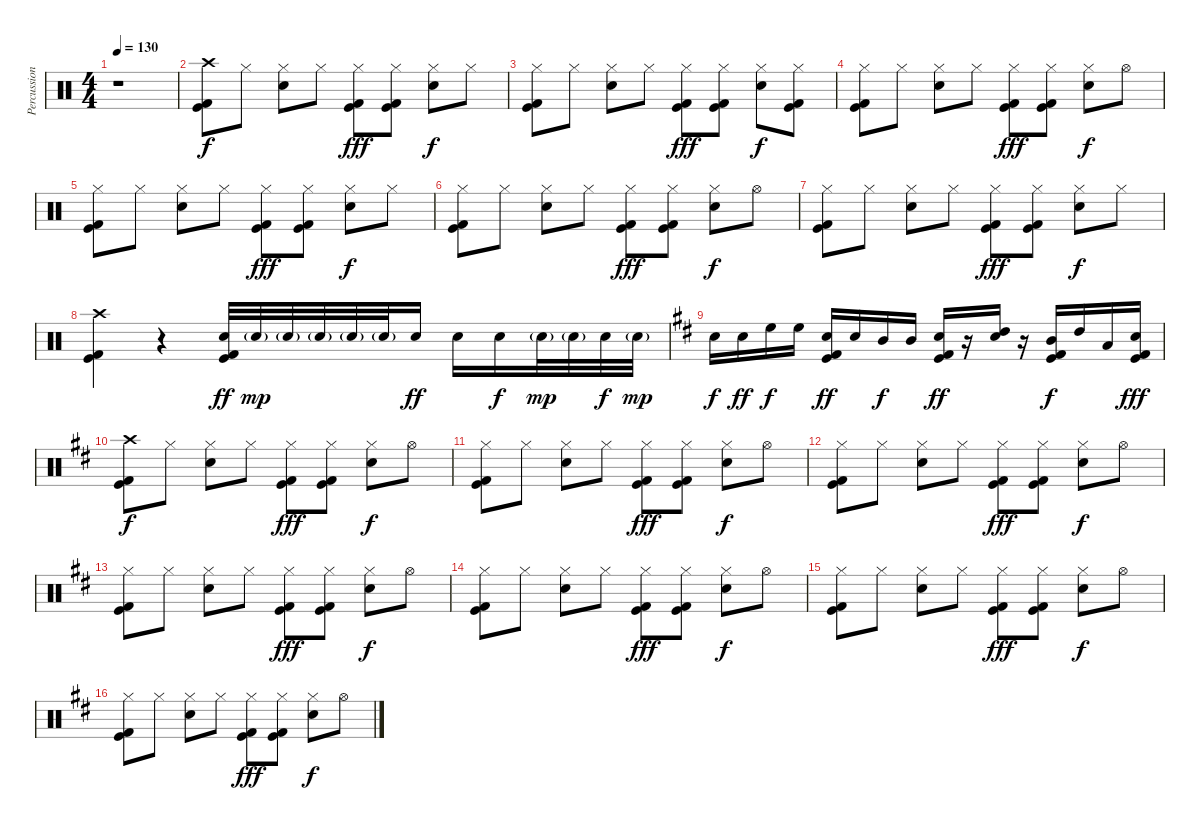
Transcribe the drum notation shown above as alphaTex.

\track ("Percussion" "Percussion") {instrument percussion}
\staff {score}
\articulation defaults
\ts (4 4)
\tempo 130
\clef neutral
\ks c
r.1{dy f} |
("Crash high (hit)" "Kick (hit)" "Kick (hit) 2").8 "Hi-Hat (closed)".8 ("Hi-Hat (closed)" "Electric Snare (hit)").8 "Hi-Hat (closed)".8 ("Hi-Hat (closed)" "Kick (hit)" "Kick (hit) 2").8{dy fff} ("Hi-Hat (closed)" "Kick (hit)" "Kick (hit) 2").8 ("Hi-Hat (closed)" "Electric Snare (hit)").8{dy f} "Hi-Hat (closed)".8 |
("Hi-Hat (closed)" "Kick (hit)" "Kick (hit) 2").8 "Hi-Hat (closed)".8 ("Hi-Hat (closed)" "Electric Snare (hit)").8 "Hi-Hat (closed)".8 ("Hi-Hat (closed)" "Kick (hit)" "Kick (hit) 2").8{dy fff} ("Hi-Hat (closed)" "Kick (hit)" "Kick (hit) 2").8 ("Hi-Hat (closed)" "Electric Snare (hit)").8{dy f} ("Hi-Hat (closed)" "Kick (hit)" "Kick (hit) 2").8 |
("Hi-Hat (closed)" "Kick (hit)" "Kick (hit) 2").8 "Hi-Hat (closed)".8 ("Hi-Hat (closed)" "Electric Snare (hit)").8 "Hi-Hat (closed)".8 ("Hi-Hat (closed)" "Kick (hit)" "Kick (hit) 2").8{dy fff} ("Hi-Hat (closed)" "Kick (hit)" "Kick (hit) 2").8 ("Hi-Hat (closed)" "Electric Snare (hit)").8{dy f} "Hi-Hat (open)".8 |
("Hi-Hat (closed)" "Kick (hit)" "Kick (hit) 2").8 "Hi-Hat (closed)".8 ("Hi-Hat (closed)" "Electric Snare (hit)").8 "Hi-Hat (closed)".8 ("Hi-Hat (closed)" "Kick (hit)" "Kick (hit) 2").8{dy fff} ("Hi-Hat (closed)" "Kick (hit)" "Kick (hit) 2").8 ("Hi-Hat (closed)" "Electric Snare (hit)").8{dy f} "Hi-Hat (closed)".8 |
("Hi-Hat (closed)" "Kick (hit)" "Kick (hit) 2").8 "Hi-Hat (closed)".8 ("Hi-Hat (closed)" "Electric Snare (hit)").8 "Hi-Hat (closed)".8 ("Hi-Hat (closed)" "Kick (hit)" "Kick (hit) 2").8{dy fff} ("Hi-Hat (closed)" "Kick (hit)" "Kick (hit) 2").8 ("Hi-Hat (closed)" "Electric Snare (hit)").8{dy f} "Hi-Hat (open)".8 |
("Hi-Hat (closed)" "Kick (hit)" "Kick (hit) 2").8 "Hi-Hat (closed)".8 ("Hi-Hat (closed)" "Electric Snare (hit)").8 "Hi-Hat (closed)".8 ("Hi-Hat (closed)" "Kick (hit)" "Kick (hit) 2").8{dy fff} ("Hi-Hat (closed)" "Kick (hit)" "Kick (hit) 2").8 ("Hi-Hat (closed)" "Electric Snare (hit)").8{dy f} "Hi-Hat (closed)".8 |
("Crash high (hit)" "Kick (hit)" "Kick (hit) 2").4 r.4 ("Kick (hit)" "Electric Snare (hit)" "Kick (hit) 2").32{dy ff} "Electric Snare (hit)"{g}.32{dy mp} "Electric Snare (hit)"{g}.32 "Electric Snare (hit)"{g}.32 "Electric Snare (hit)"{g}.32 "Electric Snare (hit)"{g}.32 "Electric Snare (hit)".16{dy ff} "Electric Snare (hit)".16 "Electric Snare (hit)".16{dy f} "Electric Snare (hit)"{g}.32{dy mp} "Electric Snare (hit)"{g}.32 "Electric Snare (hit)".32{dy f} "Electric Snare (hit)"{g}.32{dy mp} |
\ks d "Electric Snare (hit)".16{dy f} "Electric Snare (hit)".16{dy ff} "High Floor Tom (hit)".16{dy f} "High Floor Tom (hit)".16
("Kick (hit)" "Electric Snare (hit)" "Kick (hit) 2").16{dy ff} "Electric Snare (hit)".16 "Mid Tom (hit)".16{dy f} "Mid Tom (hit)".16 ("Kick (hit)" "Electric Snare (hit)" "Kick (hit) 2").16{dy ff} r.16 ("High Tom (hit)" "Electric Snare (hit)").16 r.16 ("Mid Tom (hit)" "Kick (hit)" "Kick (hit) 2").16{dy f} "High Tom (hit)".16 "Low Floor Tom (hit)".16 ("Kick (hit)" "Electric Snare (hit)" "Kick (hit) 2").16{dy fff} |
("Crash high (hit)" "Kick (hit)" "Kick (hit) 2").8{dy f} "Hi-Hat (closed)".8 ("Hi-Hat (closed)" "Electric Snare (hit)").8 "Hi-Hat (closed)".8 ("Hi-Hat (closed)" "Kick (hit)" "Kick (hit) 2").8{dy fff} ("Hi-Hat (closed)" "Kick (hit)" "Kick (hit) 2").8 ("Hi-Hat (closed)" "Electric Snare (hit)").8{dy f} "Hi-Hat (open)".8 |
("Hi-Hat (closed)" "Kick (hit)" "Kick (hit) 2").8 "Hi-Hat (closed)".8 ("Hi-Hat (closed)" "Electric Snare (hit)").8 "Hi-Hat (closed)".8 ("Hi-Hat (closed)" "Kick (hit)" "Kick (hit) 2").8{dy fff} ("Hi-Hat (closed)" "Kick (hit)" "Kick (hit) 2").8 ("Hi-Hat (closed)" "Electric Snare (hit)").8{dy f} "Hi-Hat (open)".8 |
("Hi-Hat (closed)" "Kick (hit)" "Kick (hit) 2").8 "Hi-Hat (closed)".8 ("Hi-Hat (closed)" "Electric Snare (hit)").8 "Hi-Hat (closed)".8 ("Hi-Hat (closed)" "Kick (hit)" "Kick (hit) 2").8{dy fff} ("Hi-Hat (closed)" "Kick (hit)" "Kick (hit) 2").8 ("Hi-Hat (closed)" "Electric Snare (hit)").8{dy f} "Hi-Hat (open)".8 |
("Hi-Hat (closed)" "Kick (hit)" "Kick (hit) 2").8 "Hi-Hat (closed)".8 ("Hi-Hat (closed)" "Electric Snare (hit)").8 "Hi-Hat (closed)".8 ("Hi-Hat (closed)" "Kick (hit)" "Kick (hit) 2").8{dy fff} ("Hi-Hat (closed)" "Kick (hit)" "Kick (hit) 2").8 ("Hi-Hat (closed)" "Electric Snare (hit)").8{dy f} "Hi-Hat (open)".8 |
("Hi-Hat (closed)" "Kick (hit)" "Kick (hit) 2").8 "Hi-Hat (closed)".8 ("Hi-Hat (closed)" "Electric Snare (hit)").8 "Hi-Hat (closed)".8 ("Hi-Hat (closed)" "Kick (hit)" "Kick (hit) 2").8{dy fff} ("Hi-Hat (closed)" "Kick (hit)" "Kick (hit) 2").8 ("Hi-Hat (closed)" "Electric Snare (hit)").8{dy f} "Hi-Hat (open)".8 |
("Hi-Hat (closed)" "Kick (hit)" "Kick (hit) 2").8 "Hi-Hat (closed)".8 ("Hi-Hat (closed)" "Electric Snare (hit)").8 "Hi-Hat (closed)".8 ("Hi-Hat (closed)" "Kick (hit)" "Kick (hit) 2").8{dy fff} ("Hi-Hat (closed)" "Kick (hit)" "Kick (hit) 2").8 ("Hi-Hat (closed)" "Electric Snare (hit)").8{dy f} "Hi-Hat (open)".8 |
("Hi-Hat (closed)" "Kick (hit)" "Kick (hit) 2").8 "Hi-Hat (closed)".8 ("Hi-Hat (closed)" "Electric Snare (hit)").8 "Hi-Hat (closed)".8 ("Hi-Hat (closed)" "Kick (hit)" "Kick (hit) 2").8{dy fff} ("Hi-Hat (closed)" "Kick (hit)" "Kick (hit) 2").8 ("Hi-Hat (closed)" "Electric Snare (hit)").8{dy f} "Hi-Hat (open)".8
